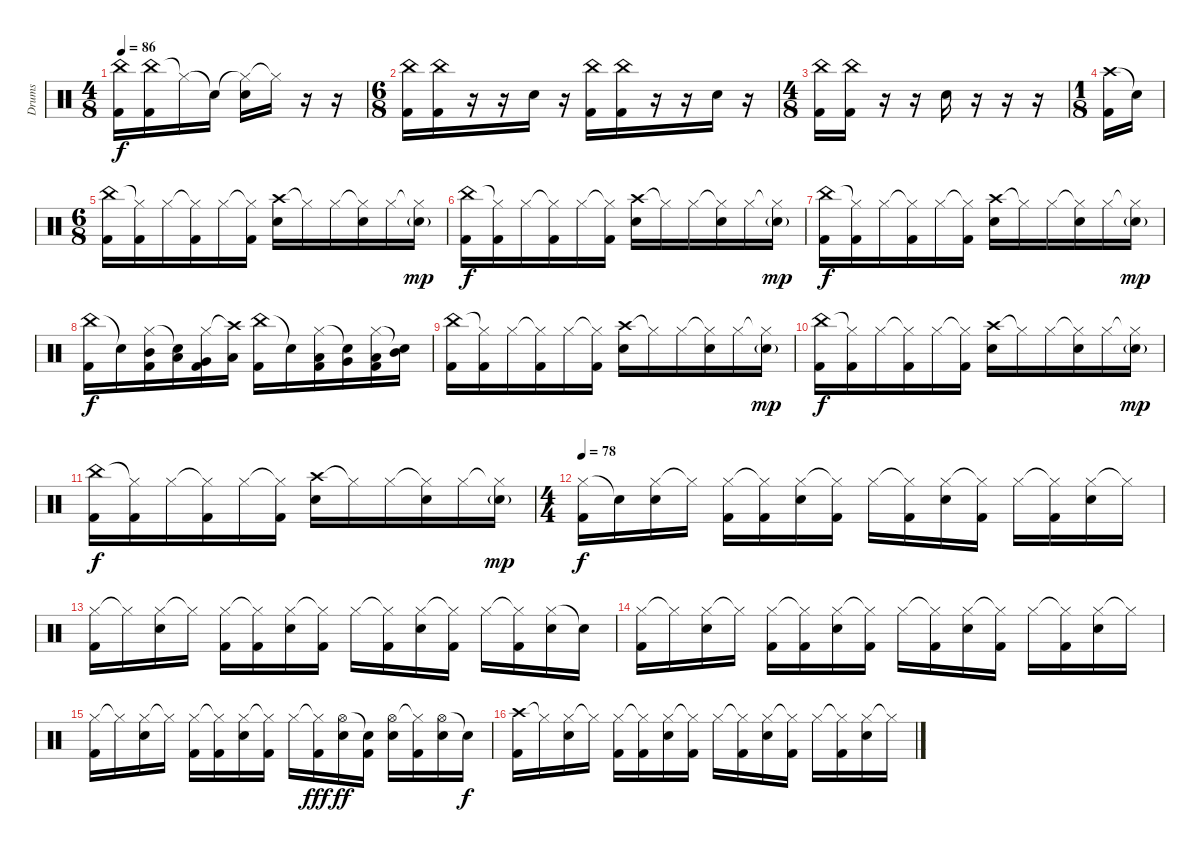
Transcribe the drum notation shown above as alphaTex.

\track ("Drums" "Drums") {instrument percussion}
\staff {score}
\articulation defaults
\ts (4 8)
\tempo 86
\clef neutral
\ks c
("China (hit)" "Kick (hit) 2").16{dy f} ("China (hit)" "Kick (hit) 2").16 "Hi-Hat (closed)"{t}.16 "Snare (hit)"{t}.16 ("Hi-Hat (closed)"{t} "Electric Snare (hit)").16 "Hi-Hat (closed)"{t}.16 r.16 r.16 |
\ts (6 8)
("China (hit)" "Kick (hit) 2").16 ("China (hit)" "Kick (hit) 2").16 r.16 r.16 "Electric Snare (hit)".16 r.16 ("China (hit)" "Kick (hit) 2").16 ("China (hit)" "Kick (hit) 2").16 r.16 r.16 "Electric Snare (hit)".16 r.16 |
\ts (4 8)
("China (hit)" "Kick (hit) 2").16 ("China (hit)" "Kick (hit) 2").16 r.16 r.16 "Electric Snare (hit)".16 r.16 r.16 r.16 |
\ts (1 8)
("Crash high (hit)" "Kick (hit) 2").16 "Snare (hit)"{t}.16 |
\ts (6 8)
("China (hit)" "Kick (hit) 2").16 ("Hi-Hat (closed)"{t} "Kick (hit) 2").16 "Hi-Hat (closed)".16 ("Hi-Hat (closed)"{t} "Kick (hit) 2").16 "Hi-Hat (closed)".16 ("Hi-Hat (closed)"{t} "Kick (hit) 2").16 ("Crash high (hit)" "Electric Snare (hit)").16 "Hi-Hat (closed)"{t}.16 "Hi-Hat (closed)".16 ("Hi-Hat (closed)"{t} "Electric Snare (hit)").16 "Hi-Hat (closed)".16 ("Hi-Hat (closed)"{t} "Electric Snare (hit)"{g}).16{dy mp} |
("China (hit)" "Kick (hit) 2").16{dy f} ("Hi-Hat (closed)"{t} "Kick (hit) 2").16 "Hi-Hat (closed)".16 ("Hi-Hat (closed)"{t} "Kick (hit) 2").16 "Hi-Hat (closed)".16 ("Hi-Hat (closed)"{t} "Kick (hit) 2").16 ("Crash high (hit)" "Electric Snare (hit)").16 "Hi-Hat (closed)"{t}.16 "Hi-Hat (closed)".16 ("Hi-Hat (closed)"{t} "Electric Snare (hit)").16 "Hi-Hat (closed)".16 ("Hi-Hat (closed)"{t} "Electric Snare (hit)"{g}).16{dy mp} |
("China (hit)" "Kick (hit) 2").16{dy f} ("Hi-Hat (closed)"{t} "Kick (hit) 2").16 "Hi-Hat (closed)".16 ("Hi-Hat (closed)"{t} "Kick (hit) 2").16 "Hi-Hat (closed)".16 ("Hi-Hat (closed)"{t} "Kick (hit) 2").16 ("Crash high (hit)" "Electric Snare (hit)").16 "Hi-Hat (closed)"{t}.16 "Hi-Hat (closed)".16 ("Hi-Hat (closed)"{t} "Electric Snare (hit)").16 "Hi-Hat (closed)".16 ("Hi-Hat (closed)"{t} "Electric Snare (hit)"{g}).16{dy mp} |
("China (hit)" "Kick (hit) 2").16{dy f} "Snare (hit)"{t}.16 ("Hi-Hat (closed)" "Mid Tom (hit)" "Kick (hit) 2").16 ("Snare (hit)"{t} "Low Tom (hit)").16 ("Hi-Hat (closed)" "Very Low Tom (hit)" "Kick (hit) 2").16 ("Crash high (hit)"{t} "Low Floor Tom (hit)").16 ("China (hit)" "Kick (hit) 2").16 "Snare (hit)"{t}.16 ("Hi-Hat (closed)" "Low Floor Tom (hit)" "Kick (hit) 2").16 ("Snare (hit)"{t} "Very Low Tom (hit)").16 ("Hi-Hat (closed)" "Low Tom (hit)" "Kick (hit) 2").16 ("Snare (hit)"{t} "Mid Tom (hit)").16 |
("China (hit)" "Kick (hit) 2").16 ("Hi-Hat (closed)"{t} "Kick (hit) 2").16 "Hi-Hat (closed)".16 ("Hi-Hat (closed)"{t} "Kick (hit) 2").16 "Hi-Hat (closed)".16 ("Hi-Hat (closed)"{t} "Kick (hit) 2").16 ("Crash high (hit)" "Electric Snare (hit)").16 "Hi-Hat (closed)"{t}.16 "Hi-Hat (closed)".16 ("Hi-Hat (closed)"{t} "Electric Snare (hit)").16 "Hi-Hat (closed)".16 ("Hi-Hat (closed)"{t} "Electric Snare (hit)"{g}).16{dy mp} |
("China (hit)" "Kick (hit) 2").16{dy f} ("Hi-Hat (closed)"{t} "Kick (hit) 2").16 "Hi-Hat (closed)".16 ("Hi-Hat (closed)"{t} "Kick (hit) 2").16 "Hi-Hat (closed)".16 ("Hi-Hat (closed)"{t} "Kick (hit) 2").16 ("Crash high (hit)" "Electric Snare (hit)").16 "Hi-Hat (closed)"{t}.16 "Hi-Hat (closed)".16 ("Hi-Hat (closed)"{t} "Electric Snare (hit)").16 "Hi-Hat (closed)".16 ("Hi-Hat (closed)"{t} "Electric Snare (hit)"{g}).16{dy mp} |
("China (hit)" "Kick (hit) 2").16{dy f} ("Hi-Hat (closed)"{t} "Kick (hit) 2").16 "Hi-Hat (closed)".16 ("Hi-Hat (closed)"{t} "Kick (hit) 2").16 "Hi-Hat (closed)".16 ("Hi-Hat (closed)"{t} "Kick (hit) 2").16 ("Crash high (hit)" "Electric Snare (hit)").16 "Hi-Hat (closed)"{t}.16 "Hi-Hat (closed)".16 ("Hi-Hat (closed)"{t} "Electric Snare (hit)").16 "Hi-Hat (closed)".16 ("Hi-Hat (closed)"{t} "Electric Snare (hit)"{g}).16{dy mp} |
\ts (4 4)
\tempo 78
("Hi-Hat (closed)" "Kick (hit) 2").16{dy f} "Snare (hit)"{t}.16 ("Hi-Hat (closed)" "Electric Snare (hit)").16 "Hi-Hat (closed)"{t}.16 ("Hi-Hat (closed)" "Kick (hit) 2").16 ("Hi-Hat (closed)"{t} "Kick (hit) 2").16 ("Hi-Hat (closed)" "Electric Snare (hit)").16 ("Hi-Hat (closed)"{t} "Kick (hit) 2").16 "Hi-Hat (closed)".16 ("Hi-Hat (closed)"{t} "Kick (hit) 2").16 ("Hi-Hat (closed)" "Electric Snare (hit)").16 ("Hi-Hat (closed)"{t} "Kick (hit) 2").16 "Hi-Hat (closed)".16 ("Hi-Hat (closed)"{t} "Kick (hit) 2").16 ("Hi-Hat (closed)" "Electric Snare (hit)").16 "Hi-Hat (closed)"{t}.16 |
("Hi-Hat (closed)" "Kick (hit) 2").16 "Hi-Hat (closed)"{t}.16 ("Hi-Hat (closed)" "Electric Snare (hit)").16 "Hi-Hat (closed)"{t}.16 ("Hi-Hat (closed)" "Kick (hit) 2").16 ("Hi-Hat (closed)"{t} "Kick (hit) 2").16 ("Hi-Hat (closed)" "Electric Snare (hit)").16 ("Hi-Hat (closed)"{t} "Kick (hit) 2").16 "Hi-Hat (closed)".16 ("Hi-Hat (closed)"{t} "Kick (hit) 2").16 ("Hi-Hat (closed)" "Electric Snare (hit)").16 ("Hi-Hat (closed)"{t} "Kick (hit) 2").16 "Hi-Hat (closed)".16 ("Hi-Hat (closed)"{t} "Kick (hit) 2").16 ("Hi-Hat (closed)" "Electric Snare (hit)").16 "Snare (hit)"{t}.16 |
("Hi-Hat (closed)" "Kick (hit) 2").16 "Hi-Hat (closed)"{t}.16 ("Hi-Hat (closed)" "Electric Snare (hit)").16 "Hi-Hat (closed)"{t}.16 ("Hi-Hat (closed)" "Kick (hit) 2").16 ("Hi-Hat (closed)"{t} "Kick (hit) 2").16 ("Hi-Hat (closed)" "Electric Snare (hit)").16 ("Hi-Hat (closed)"{t} "Kick (hit) 2").16 "Hi-Hat (closed)".16 ("Hi-Hat (closed)"{t} "Kick (hit) 2").16 ("Hi-Hat (closed)" "Electric Snare (hit)").16 ("Hi-Hat (closed)"{t} "Kick (hit) 2").16 "Hi-Hat (closed)".16 ("Hi-Hat (closed)"{t} "Kick (hit) 2").16 ("Hi-Hat (closed)" "Electric Snare (hit)").16 "Hi-Hat (closed)"{t}.16 |
("Hi-Hat (closed)" "Kick (hit) 2").16 "Hi-Hat (closed)"{t}.16 ("Hi-Hat (closed)" "Electric Snare (hit)").16 "Hi-Hat (closed)"{t}.16 ("Hi-Hat (closed)" "Kick (hit) 2").16 ("Hi-Hat (closed)"{t} "Kick (hit) 2").16 ("Hi-Hat (closed)" "Electric Snare (hit)").16 ("Hi-Hat (closed)"{t} "Kick (hit) 2").16 "Hi-Hat (closed)".16 ("Hi-Hat (closed)"{t} "Kick (hit) 2").16{dy fff} ("Hi-Hat (open)" "Electric Snare (hit)").16{dy ff} ("Snare (hit)"{t} "Kick (hit) 2").16 ("Hi-Hat (open)" "Electric Snare (hit)").16 ("Hi-Hat (closed)"{t} "Kick (hit) 2").16 ("Hi-Hat (open)" "Electric Snare (hit)").16 "Snare (hit)"{t}.16{dy f} |
("Crash high (hit)" "Kick (hit) 2").16 "Hi-Hat (closed)"{t}.16 ("Hi-Hat (closed)" "Electric Snare (hit)").16 "Hi-Hat (closed)"{t}.16 ("Hi-Hat (closed)" "Kick (hit) 2").16 ("Hi-Hat (closed)"{t} "Kick (hit) 2").16 ("Hi-Hat (closed)" "Electric Snare (hit)").16 ("Hi-Hat (closed)"{t} "Kick (hit) 2").16 "Hi-Hat (closed)".16 ("Hi-Hat (closed)"{t} "Kick (hit) 2").16 ("Hi-Hat (closed)" "Electric Snare (hit)").16 ("Hi-Hat (closed)"{t} "Kick (hit) 2").16 "Hi-Hat (closed)".16 ("Hi-Hat (closed)"{t} "Kick (hit) 2").16 ("Hi-Hat (closed)" "Electric Snare (hit)").16 "Hi-Hat (closed)"{t}.16
